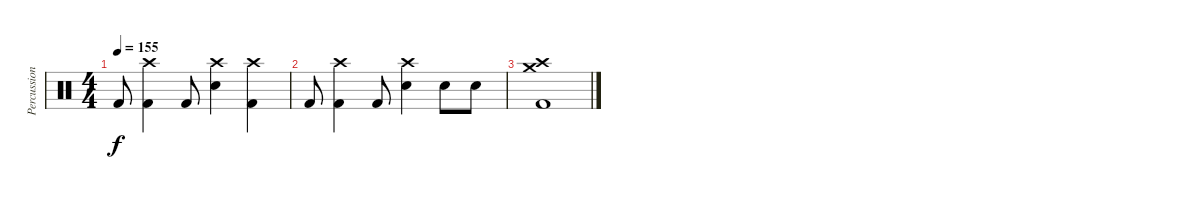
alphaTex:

\track ("Percussion" "Percussion") {instrument percussion}
\staff {score}
\articulation defaults
\ts (4 4)
\tempo 155
\clef neutral
\ks c "Kick (hit) 2".8{dy f}
("Crash high (hit)" "Kick (hit) 2").4 "Kick (hit) 2".8 ("Crash high (hit)" "Electric Snare (hit)").4 ("Crash high (hit)" "Kick (hit) 2").4 |
"Kick (hit) 2".8 ("Crash high (hit)" "Kick (hit) 2").4 "Kick (hit) 2".8 ("Crash high (hit)" "Electric Snare (hit)").4 "Electric Snare (hit)".8 "Electric Snare (hit)".8 |
("Crash high (hit)" "Crash medium (hit)" "Kick (hit) 2").1
